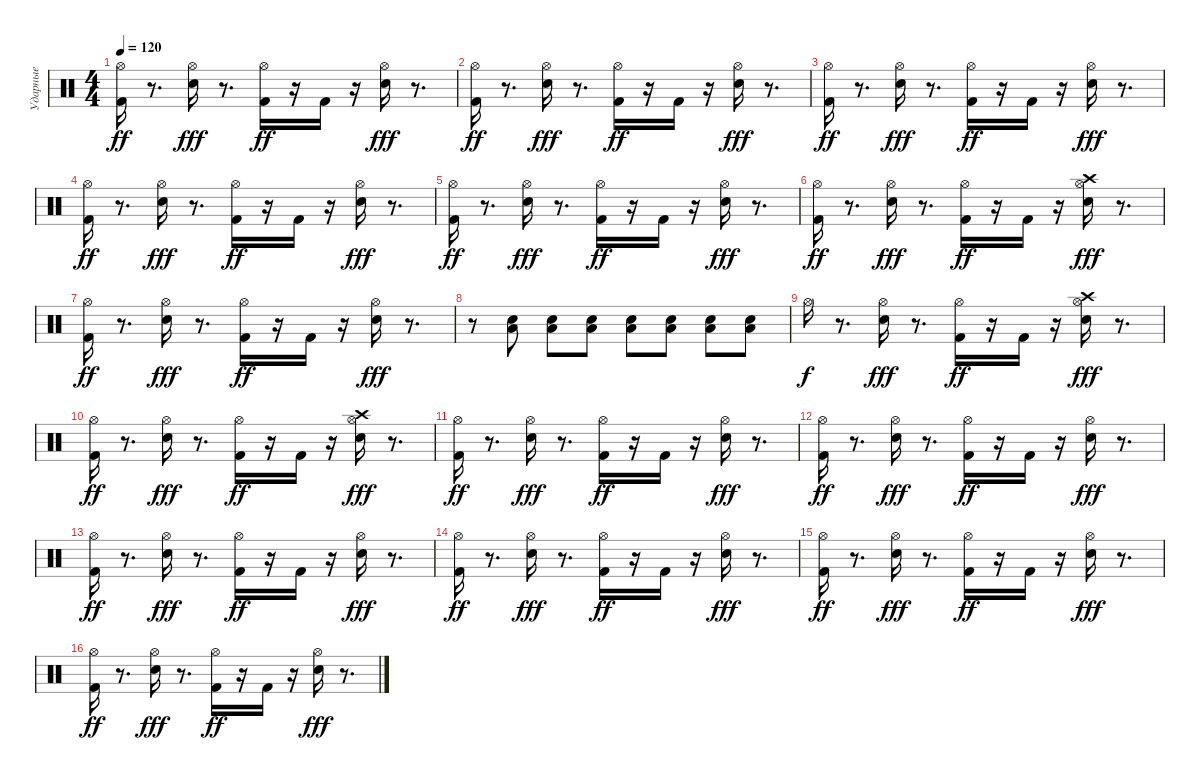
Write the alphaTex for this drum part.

\track ("Ударные" "Ударные") {instrument percussion}
\staff {score}
\articulation defaults
\ts (4 4)
\tempo 120
\clef neutral
\ks c
("Kick (hit) 2" "Hi-Hat (open)").16{dy ff} r.8{d} ("Snare (hit) 2" "Hi-Hat (open)").16{dy fff} r.8{d} ("Kick (hit) 2" "Hi-Hat (open)").16{dy ff} r.16 "Kick (hit) 2".16 r.16 ("Snare (hit) 2" "Hi-Hat (open)").16{dy fff} r.8{d} |
("Kick (hit) 2" "Hi-Hat (open)").16{dy ff} r.8{d} ("Snare (hit) 2" "Hi-Hat (open)").16{dy fff} r.8{d} ("Kick (hit) 2" "Hi-Hat (open)").16{dy ff} r.16 "Kick (hit) 2".16 r.16 ("Snare (hit) 2" "Hi-Hat (open)").16{dy fff} r.8{d} |
("Kick (hit) 2" "Hi-Hat (open)").16{dy ff} r.8{d} ("Snare (hit) 2" "Hi-Hat (open)").16{dy fff} r.8{d} ("Kick (hit) 2" "Hi-Hat (open)").16{dy ff} r.16 "Kick (hit) 2".16 r.16 ("Snare (hit) 2" "Hi-Hat (open)").16{dy fff} r.8{d} |
("Kick (hit) 2" "Hi-Hat (open)").16{dy ff} r.8{d} ("Snare (hit) 2" "Hi-Hat (open)").16{dy fff} r.8{d} ("Kick (hit) 2" "Hi-Hat (open)").16{dy ff} r.16 "Kick (hit) 2".16 r.16 ("Snare (hit) 2" "Hi-Hat (open)").16{dy fff} r.8{d} |
("Kick (hit) 2" "Hi-Hat (open)").16{dy ff} r.8{d} ("Snare (hit) 2" "Hi-Hat (open)").16{dy fff} r.8{d} ("Kick (hit) 2" "Hi-Hat (open)").16{dy ff} r.16 "Kick (hit) 2".16 r.16 ("Snare (hit) 2" "Hi-Hat (open)").16{dy fff} r.8{d} |
("Kick (hit) 2" "Hi-Hat (open)").16{dy ff} r.8{d} ("Snare (hit) 2" "Hi-Hat (open)").16{dy fff} r.8{d} ("Kick (hit) 2" "Hi-Hat (open)").16{dy ff} r.16 "Kick (hit) 2".16 r.16 ("Snare (hit) 2" "Hi-Hat (open)" "Crash high (hit)").16{dy fff} r.8{d} |
("Kick (hit) 2" "Hi-Hat (open)").16{dy ff} r.8{d} ("Snare (hit) 2" "Hi-Hat (open)").16{dy fff} r.8{d} ("Kick (hit) 2" "Hi-Hat (open)").16{dy ff} r.16 "Kick (hit) 2".16 r.16 ("Snare (hit) 2" "Hi-Hat (open)").16{dy fff} r.8{d} |
r.8 ("Snare (hit) 2" "Low Floor Tom (hit)").8 ("Snare (hit) 2" "Low Floor Tom (hit)").8 ("Snare (hit) 2" "Low Floor Tom (hit)").8 ("Snare (hit) 2" "Low Floor Tom (hit)").8 ("Snare (hit) 2" "Low Floor Tom (hit)").8 ("Snare (hit) 2" "Low Floor Tom (hit)").8 ("Snare (hit) 2" "Low Floor Tom (hit)").8 |
"Hi-Hat (open)".16{dy f} r.8{d} ("Snare (hit) 2" "Hi-Hat (open)").16{dy fff} r.8{d} ("Kick (hit) 2" "Hi-Hat (open)").16{dy ff} r.16 "Kick (hit) 2".16 r.16 ("Snare (hit) 2" "Hi-Hat (open)" "Crash high (hit)").16{dy fff} r.8{d} |
("Kick (hit) 2" "Hi-Hat (open)").16{dy ff} r.8{d} ("Snare (hit) 2" "Hi-Hat (open)").16{dy fff} r.8{d} ("Kick (hit) 2" "Hi-Hat (open)").16{dy ff} r.16 "Kick (hit) 2".16 r.16 ("Snare (hit) 2" "Hi-Hat (open)" "Crash high (hit)").16{dy fff} r.8{d} |
("Kick (hit) 2" "Hi-Hat (open)").16{dy ff} r.8{d} ("Snare (hit) 2" "Hi-Hat (open)").16{dy fff} r.8{d} ("Kick (hit) 2" "Hi-Hat (open)").16{dy ff} r.16 "Kick (hit) 2".16 r.16 ("Snare (hit) 2" "Hi-Hat (open)").16{dy fff} r.8{d} |
("Kick (hit) 2" "Hi-Hat (open)").16{dy ff} r.8{d} ("Snare (hit) 2" "Hi-Hat (open)").16{dy fff} r.8{d} ("Kick (hit) 2" "Hi-Hat (open)").16{dy ff} r.16 "Kick (hit) 2".16 r.16 ("Snare (hit) 2" "Hi-Hat (open)").16{dy fff} r.8{d} |
("Kick (hit) 2" "Hi-Hat (open)").16{dy ff} r.8{d} ("Snare (hit) 2" "Hi-Hat (open)").16{dy fff} r.8{d} ("Kick (hit) 2" "Hi-Hat (open)").16{dy ff} r.16 "Kick (hit) 2".16 r.16 ("Snare (hit) 2" "Hi-Hat (open)").16{dy fff} r.8{d} |
("Kick (hit) 2" "Hi-Hat (open)").16{dy ff} r.8{d} ("Snare (hit) 2" "Hi-Hat (open)").16{dy fff} r.8{d} ("Kick (hit) 2" "Hi-Hat (open)").16{dy ff} r.16 "Kick (hit) 2".16 r.16 ("Snare (hit) 2" "Hi-Hat (open)").16{dy fff} r.8{d} |
("Kick (hit) 2" "Hi-Hat (open)").16{dy ff} r.8{d} ("Snare (hit) 2" "Hi-Hat (open)").16{dy fff} r.8{d} ("Kick (hit) 2" "Hi-Hat (open)").16{dy ff} r.16 "Kick (hit) 2".16 r.16 ("Snare (hit) 2" "Hi-Hat (open)").16{dy fff} r.8{d} |
("Kick (hit) 2" "Hi-Hat (open)").16{dy ff} r.8{d} ("Snare (hit) 2" "Hi-Hat (open)").16{dy fff} r.8{d} ("Kick (hit) 2" "Hi-Hat (open)").16{dy ff} r.16 "Kick (hit) 2".16 r.16 ("Snare (hit) 2" "Hi-Hat (open)").16{dy fff} r.8{d}
